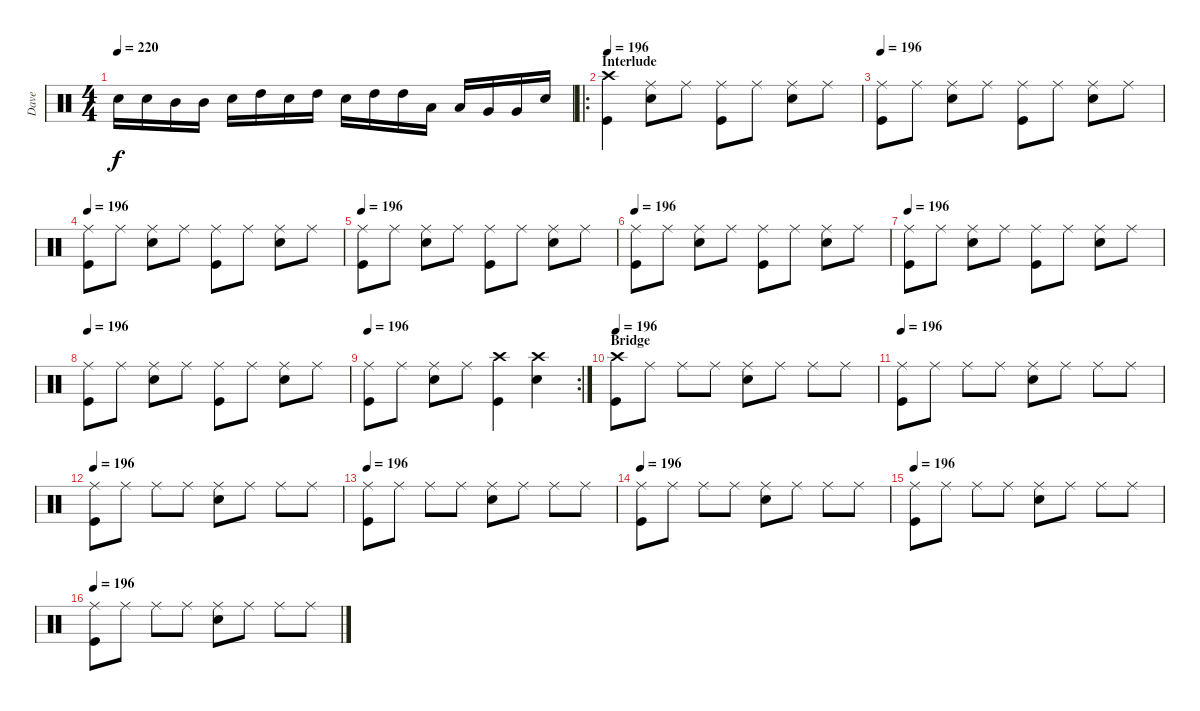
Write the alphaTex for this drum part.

\track ("Dave" "Dave") {instrument percussion}
\staff {score}
\articulation defaults
\ts (4 4)
\tempo 220
\clef neutral
\ks c "Snare (hit) 2".16{dy f} "Snare (hit) 2".16 "Mid Tom (hit)".16 "Mid Tom (hit)".16 "Snare (hit) 2".16 "High Tom (hit)".16 "Snare (hit) 2".16 "High Tom (hit)".16 "Snare (hit) 2".16 "High Tom (hit)".16 "High Tom (hit)".16 "Low Tom (hit)".16 "Low Tom (hit)".16 "Very Low Tom (hit)".16 "Very Low Tom (hit)".16 "Snare (hit) 2".16
|
\ro
\section ("" "Interlude")
\tempo 196
("Crash high (hit)" "Kick (hit)").4 ("Ride (middle)" "Snare (hit) 2").8 "Ride (middle)".8 ("Ride (middle)" "Kick (hit)").8 "Ride (middle)".8 ("Ride (middle)" "Snare (hit) 2").8 "Ride (middle)".8 |
\tempo 196
("Ride (middle)" "Kick (hit)").8 "Ride (middle)".8 ("Ride (middle)" "Snare (hit) 2").8 "Ride (middle)".8 ("Ride (middle)" "Kick (hit)").8 "Ride (middle)".8 ("Ride (middle)" "Snare (hit) 2").8 "Ride (middle)".8 |
\tempo 196
("Ride (middle)" "Kick (hit)").8 "Ride (middle)".8 ("Ride (middle)" "Snare (hit) 2").8 "Ride (middle)".8 ("Ride (middle)" "Kick (hit)").8 "Ride (middle)".8 ("Ride (middle)" "Snare (hit) 2").8 "Ride (middle)".8 |
\tempo 196
("Ride (middle)" "Kick (hit)").8 "Ride (middle)".8 ("Ride (middle)" "Snare (hit) 2").8 "Ride (middle)".8 ("Ride (middle)" "Kick (hit)").8 "Ride (middle)".8 ("Ride (middle)" "Snare (hit) 2").8 "Ride (middle)".8 |
\tempo 196
("Ride (middle)" "Kick (hit)").8 "Ride (middle)".8 ("Ride (middle)" "Snare (hit) 2").8 "Ride (middle)".8 ("Ride (middle)" "Kick (hit)").8 "Ride (middle)".8 ("Ride (middle)" "Snare (hit) 2").8 "Ride (middle)".8 |
\tempo 196
("Ride (middle)" "Kick (hit)").8 "Ride (middle)".8 ("Ride (middle)" "Snare (hit) 2").8 "Ride (middle)".8 ("Ride (middle)" "Kick (hit)").8 "Ride (middle)".8 ("Ride (middle)" "Snare (hit) 2").8 "Ride (middle)".8 |
\tempo 196
("Ride (middle)" "Kick (hit)").8 "Ride (middle)".8 ("Ride (middle)" "Snare (hit) 2").8 "Ride (middle)".8 ("Ride (middle)" "Kick (hit)").8 "Ride (middle)".8 ("Ride (middle)" "Snare (hit) 2").8 "Ride (middle)".8 |
\rc 2
\tempo 196
("Ride (middle)" "Kick (hit)").8 "Ride (middle)".8 ("Ride (middle)" "Snare (hit) 2").8 "Ride (middle)".8 ("Crash high (hit)" "Kick (hit)").4 ("Crash high (hit)" "Snare (hit) 2").4 |
\section ("" "Bridge")
\tempo 196
("Crash high (hit)" "Kick (hit)").8 "Ride (middle)".8 "Ride (middle)".8 "Ride (middle)".8 ("Ride (middle)" "Snare (hit) 2").8 "Ride (middle)".8 "Ride (middle)".8 "Ride (middle)".8 |
\tempo 196
("Ride (middle)" "Kick (hit)").8 "Ride (middle)".8 "Ride (middle)".8 "Ride (middle)".8 ("Ride (middle)" "Snare (hit) 2").8 "Ride (middle)".8 "Ride (middle)".8 "Ride (middle)".8 |
\tempo 196
("Ride (middle)" "Kick (hit)").8 "Ride (middle)".8 "Ride (middle)".8 "Ride (middle)".8 ("Ride (middle)" "Snare (hit) 2").8 "Ride (middle)".8 "Ride (middle)".8 "Ride (middle)".8 |
\tempo 196
("Ride (middle)" "Kick (hit)").8 "Ride (middle)".8 "Ride (middle)".8 "Ride (middle)".8 ("Ride (middle)" "Snare (hit) 2").8 "Ride (middle)".8 "Ride (middle)".8 "Ride (middle)".8 |
\tempo 196
("Ride (middle)" "Kick (hit)").8 "Ride (middle)".8 "Ride (middle)".8 "Ride (middle)".8 ("Ride (middle)" "Snare (hit) 2").8 "Ride (middle)".8 "Ride (middle)".8 "Ride (middle)".8 |
\tempo 196
("Ride (middle)" "Kick (hit)").8 "Ride (middle)".8 "Ride (middle)".8 "Ride (middle)".8 ("Ride (middle)" "Snare (hit) 2").8 "Ride (middle)".8 "Ride (middle)".8 "Ride (middle)".8 |
\tempo 196
("Ride (middle)" "Kick (hit)").8 "Ride (middle)".8 "Ride (middle)".8 "Ride (middle)".8 ("Ride (middle)" "Snare (hit) 2").8 "Ride (middle)".8 "Ride (middle)".8 "Ride (middle)".8
